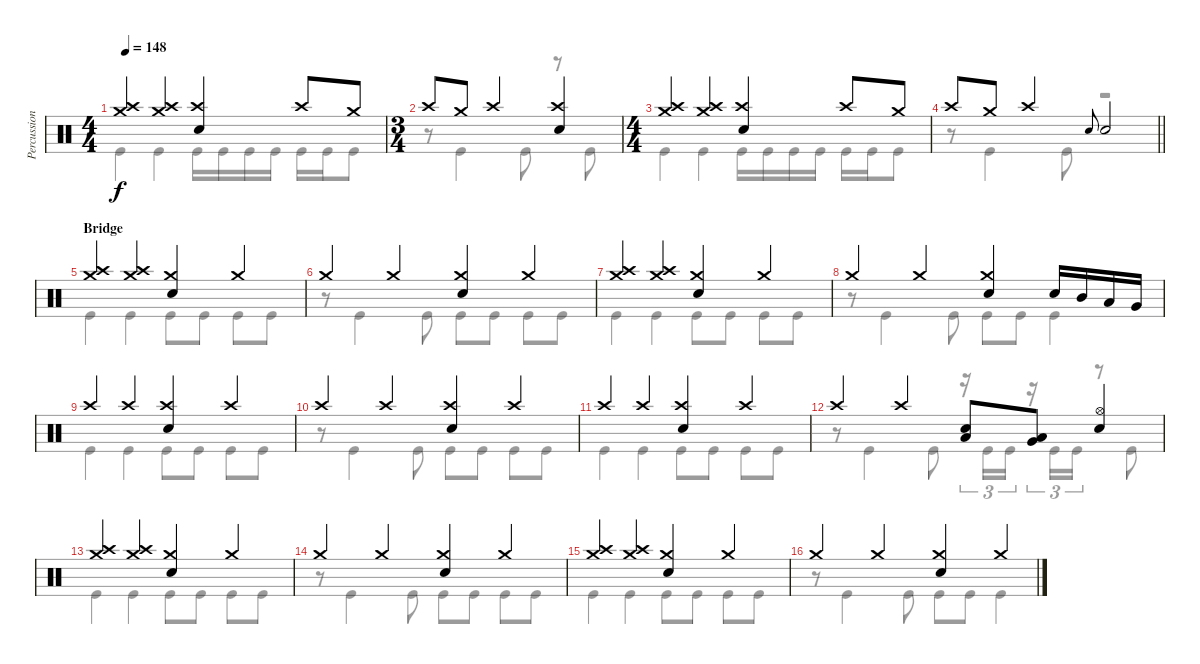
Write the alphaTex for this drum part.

\track ("Percussion" "Percussion") {instrument percussion}
\staff {score}
\articulation defaults
\voice
\ts (4 4)
\tempo 148
\clef neutral
\ks c
("Crash medium (hit)" "Crash high (hit)").4{dy f} ("Crash medium (hit)" "Crash high (hit)").4 ("Crash high (hit)" "Electric Snare (hit)").4 "Crash high (hit)".8 "Crash medium (hit)".8 |
\ts (3 4)
"Crash high (hit)".8 "Crash medium (hit)".8 "Crash high (hit)".4 ("Crash high (hit)" "Electric Snare (hit)").4 |
\ts (4 4)
("Crash medium (hit)" "Crash high (hit)").4 ("Crash medium (hit)" "Crash high (hit)").4 ("Crash high (hit)" "Electric Snare (hit)").4 "Crash high (hit)".8 "Crash medium (hit)".8 |
\barLineRight lightlight "Crash high (hit)".8 "Crash medium (hit)".8 "Crash high (hit)".4 "Electric Snare (hit)".8{gr onbeat} "Electric Snare (hit)".2
|
\section ("" "Bridge")
("Crash medium (hit)" "Crash high (hit)").4 ("Crash medium (hit)" "Crash high (hit)").4 ("Crash medium (hit)" "Electric Snare (hit)").4 "Crash medium (hit)".4 |
"Crash medium (hit)".4 "Crash medium (hit)".4 ("Crash medium (hit)" "Electric Snare (hit)").4 "Crash medium (hit)".4 |
("Crash medium (hit)" "Crash high (hit)").4 ("Crash medium (hit)" "Crash high (hit)").4 ("Crash medium (hit)" "Electric Snare (hit)").4 "Crash medium (hit)".4 |
"Crash medium (hit)".4 "Crash medium (hit)".4 ("Crash medium (hit)" "Electric Snare (hit)").4 "Electric Snare (hit)".16 "Mid Tom (hit)".16 "Low Tom (hit)".16 "Very Low Tom (hit)".16 |
"Crash high (hit)".4 "Crash high (hit)".4 ("Crash high (hit)" "Electric Snare (hit)").4 "Crash high (hit)".4 |
"Crash high (hit)".4 "Crash high (hit)".4 ("Crash high (hit)" "Electric Snare (hit)").4 "Crash high (hit)".4 |
"Crash high (hit)".4 "Crash high (hit)".4 ("Crash high (hit)" "Electric Snare (hit)").4 "Crash high (hit)".4 |
"Crash high (hit)".4 "Crash high (hit)".4 ("Low Tom (hit)" "Electric Snare (hit)").8 ("Low Tom (hit)" "Very Low Tom (hit)").8 ("Hi-Hat (open)" "Electric Snare (hit)").4 |
("Crash medium (hit)" "Crash high (hit)").4 ("Crash medium (hit)" "Crash high (hit)").4 ("Crash medium (hit)" "Electric Snare (hit)").4 "Crash medium (hit)".4 |
"Crash medium (hit)".4 "Crash medium (hit)".4 ("Crash medium (hit)" "Electric Snare (hit)").4 "Crash medium (hit)".4 |
("Crash medium (hit)" "Crash high (hit)").4 ("Crash medium (hit)" "Crash high (hit)").4 ("Crash medium (hit)" "Electric Snare (hit)").4 "Crash medium (hit)".4 |
"Crash medium (hit)".4 "Crash medium (hit)".4 ("Crash medium (hit)" "Electric Snare (hit)").4 "Crash medium (hit)".4
\voice
\clef neutral
\ottava regular
\simile none
\ks c "Kick (hit)".4{dy f} "Kick (hit)".4 "Kick (hit)".16 "Kick (hit)".16 "Kick (hit)".16 "Kick (hit)".16 "Kick (hit)".16 "Kick (hit)".16 "Kick (hit)".8
|
r.8 "Kick (hit)".4 "Kick (hit)".8 r.8 "Kick (hit)".8 |
"Kick (hit)".4 "Kick (hit)".4 "Kick (hit)".16 "Kick (hit)".16 "Kick (hit)".16 "Kick (hit)".16 "Kick (hit)".16 "Kick (hit)".16 "Kick (hit)".8 |
\barLineRight lightlight
r.8 "Kick (hit)".4 "Kick (hit)".8 r.2 |
"Kick (hit)".4 "Kick (hit)".4 "Kick (hit)".8 "Kick (hit)".8 "Kick (hit)".8 "Kick (hit)".8 |
r.8 "Kick (hit)".4 "Kick (hit)".8 "Kick (hit)".8 "Kick (hit)".8 "Kick (hit)".8 "Kick (hit)".8 |
"Kick (hit)".4 "Kick (hit)".4 "Kick (hit)".8 "Kick (hit)".8 "Kick (hit)".8 "Kick (hit)".8 |
r.8 "Kick (hit)".4 "Kick (hit)".8 "Kick (hit)".8 "Kick (hit)".8 "Kick (hit)".4 |
"Kick (hit)".4 "Kick (hit)".4 "Kick (hit)".8 "Kick (hit)".8 "Kick (hit)".8 "Kick (hit)".8 |
r.8 "Kick (hit)".4 "Kick (hit)".8 "Kick (hit)".8 "Kick (hit)".8 "Kick (hit)".8 "Kick (hit)".8 |
"Kick (hit)".4 "Kick (hit)".4 "Kick (hit)".8 "Kick (hit)".8 "Kick (hit)".8 "Kick (hit)".8 |
r.8 "Kick (hit)".4 "Kick (hit)".8 r.16{tu (3 2)} "Kick (hit)".16{tu (3 2)} "Kick (hit)".16{tu (3 2)} r.16{tu (3 2)} "Kick (hit)".16{tu (3 2)} "Kick (hit)".16{tu (3 2)} r.8 "Kick (hit)".8 |
"Kick (hit)".4 "Kick (hit)".4 "Kick (hit)".8 "Kick (hit)".8 "Kick (hit)".8 "Kick (hit)".8 |
r.8 "Kick (hit)".4 "Kick (hit)".8 "Kick (hit)".8 "Kick (hit)".8 "Kick (hit)".8 "Kick (hit)".8 |
"Kick (hit)".4 "Kick (hit)".4 "Kick (hit)".8 "Kick (hit)".8 "Kick (hit)".8 "Kick (hit)".8 |
r.8 "Kick (hit)".4 "Kick (hit)".8 "Kick (hit)".8 "Kick (hit)".8 "Kick (hit)".4
